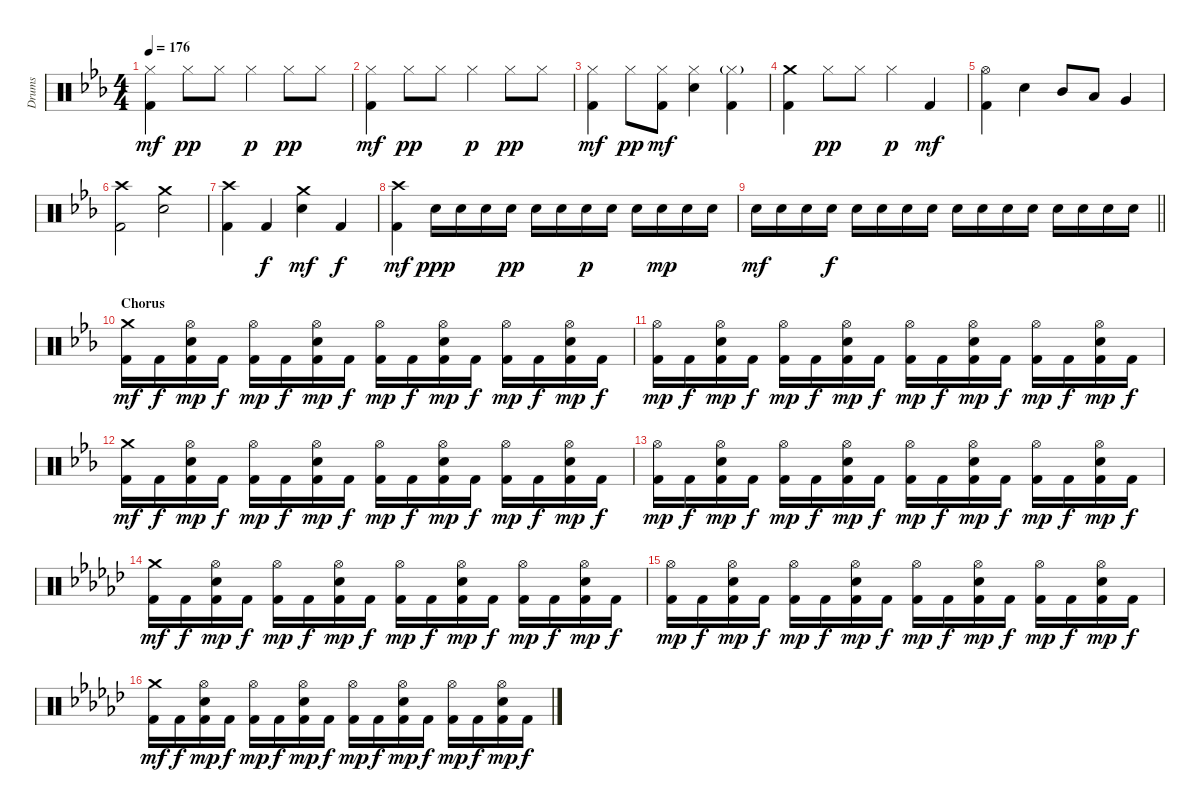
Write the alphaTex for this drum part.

\track ("Drums" "Drums") {instrument percussion}
\staff {score}
\articulation defaults
\ts (4 4)
\tempo 176
\clef neutral
\ks cminor
("Hi-Hat (closed)" "Kick (hit) 2").4{dy mf} "Hi-Hat (closed)".8{dy pp} "Hi-Hat (closed)".8 "Hi-Hat (closed)".4{dy p} "Hi-Hat (closed)".8{dy pp} "Hi-Hat (closed)".8 |
("Hi-Hat (closed)" "Kick (hit) 2").4{dy mf} "Hi-Hat (closed)".8{dy pp} "Hi-Hat (closed)".8 "Hi-Hat (closed)".4{dy p} "Hi-Hat (closed)".8{dy pp} "Hi-Hat (closed)".8 |
("Hi-Hat (closed)" "Kick (hit) 2").4{dy mf} "Hi-Hat (closed)".8{dy pp} ("Hi-Hat (closed)" "Kick (hit) 2").8{dy mf} ("Hi-Hat (closed)" "Electric Snare (hit)").4 ("Hi-Hat (closed)"{g} "Kick (hit) 2").4 |
("Crash medium (hit)" "Kick (hit) 2").4 "Hi-Hat (closed)".8{dy pp} "Hi-Hat (closed)".8 "Hi-Hat (closed)".4{dy p} "Kick (hit) 2".4{dy mf} |
("Hi-Hat (open)" "Kick (hit) 2").4 "Electric Snare (hit)".4 "Mid Tom (hit)".8 "Low Tom (hit)".8 "Very Low Tom (hit)".4 |
("Crash high (hit)" "Kick (hit) 2").2 ("Crash medium (hit)" "Electric Snare (hit)").2 |
("Crash high (hit)" "Kick (hit) 2").4 "Kick (hit) 2".4{dy f} ("Crash medium (hit)" "Electric Snare (hit)").4{dy mf} "Kick (hit) 2".4{dy f} |
("Crash high (hit)" "Kick (hit) 2").4{dy mf} "Electric Snare (hit)".16{dy ppp} "Electric Snare (hit)".16 "Electric Snare (hit)".16 "Electric Snare (hit)".16{dy pp} "Electric Snare (hit)".16 "Electric Snare (hit)".16 "Electric Snare (hit)".16{dy p} "Electric Snare (hit)".16 "Electric Snare (hit)".16 "Electric Snare (hit)".16{dy mp} "Electric Snare (hit)".16 "Electric Snare (hit)".16 |
\barLineRight lightlight "Electric Snare (hit)".16{dy mf} "Electric Snare (hit)".16 "Electric Snare (hit)".16 "Electric Snare (hit)".16{dy f} "Electric Snare (hit)".16 "Electric Snare (hit)".16 "Electric Snare (hit)".16 "Electric Snare (hit)".16 "Electric Snare (hit)".16 "Electric Snare (hit)".16 "Electric Snare (hit)".16 "Electric Snare (hit)".16 "Electric Snare (hit)".16 "Electric Snare (hit)".16 "Electric Snare (hit)".16 "Electric Snare (hit)".16
|
\section ("" "Chorus")
("Crash medium (hit)" "Kick (hit) 2").16{dy mf} "Kick (hit) 2".16{dy f} ("Hi-Hat (open)" "Electric Snare (hit)" "Kick (hit) 2").16{dy mp} "Kick (hit) 2".16{dy f} ("Hi-Hat (open)" "Kick (hit) 2").16{dy mp} "Kick (hit) 2".16{dy f} ("Hi-Hat (open)" "Electric Snare (hit)" "Kick (hit) 2").16{dy mp} "Kick (hit) 2".16{dy f} ("Hi-Hat (open)" "Kick (hit) 2").16{dy mp} "Kick (hit) 2".16{dy f} ("Hi-Hat (open)" "Electric Snare (hit)" "Kick (hit) 2").16{dy mp} "Kick (hit) 2".16{dy f} ("Hi-Hat (open)" "Kick (hit) 2").16{dy mp} "Kick (hit) 2".16{dy f} ("Hi-Hat (open)" "Electric Snare (hit)" "Kick (hit) 2").16{dy mp} "Kick (hit) 2".16{dy f} |
("Hi-Hat (open)" "Kick (hit) 2").16{dy mp} "Kick (hit) 2".16{dy f} ("Hi-Hat (open)" "Electric Snare (hit)" "Kick (hit) 2").16{dy mp} "Kick (hit) 2".16{dy f} ("Hi-Hat (open)" "Kick (hit) 2").16{dy mp} "Kick (hit) 2".16{dy f} ("Hi-Hat (open)" "Electric Snare (hit)" "Kick (hit) 2").16{dy mp} "Kick (hit) 2".16{dy f} ("Hi-Hat (open)" "Kick (hit) 2").16{dy mp} "Kick (hit) 2".16{dy f} ("Hi-Hat (open)" "Electric Snare (hit)" "Kick (hit) 2").16{dy mp} "Kick (hit) 2".16{dy f} ("Hi-Hat (open)" "Kick (hit) 2").16{dy mp} "Kick (hit) 2".16{dy f} ("Hi-Hat (open)" "Electric Snare (hit)" "Kick (hit) 2").16{dy mp} "Kick (hit) 2".16{dy f} |
("Crash medium (hit)" "Kick (hit) 2").16{dy mf} "Kick (hit) 2".16{dy f} ("Hi-Hat (open)" "Electric Snare (hit)" "Kick (hit) 2").16{dy mp} "Kick (hit) 2".16{dy f} ("Hi-Hat (open)" "Kick (hit) 2").16{dy mp} "Kick (hit) 2".16{dy f} ("Hi-Hat (open)" "Electric Snare (hit)" "Kick (hit) 2").16{dy mp} "Kick (hit) 2".16{dy f} ("Hi-Hat (open)" "Kick (hit) 2").16{dy mp} "Kick (hit) 2".16{dy f} ("Hi-Hat (open)" "Electric Snare (hit)" "Kick (hit) 2").16{dy mp} "Kick (hit) 2".16{dy f} ("Hi-Hat (open)" "Kick (hit) 2").16{dy mp} "Kick (hit) 2".16{dy f} ("Hi-Hat (open)" "Electric Snare (hit)" "Kick (hit) 2").16{dy mp} "Kick (hit) 2".16{dy f} |
("Hi-Hat (open)" "Kick (hit) 2").16{dy mp} "Kick (hit) 2".16{dy f} ("Hi-Hat (open)" "Electric Snare (hit)" "Kick (hit) 2").16{dy mp} "Kick (hit) 2".16{dy f} ("Hi-Hat (open)" "Kick (hit) 2").16{dy mp} "Kick (hit) 2".16{dy f} ("Hi-Hat (open)" "Electric Snare (hit)" "Kick (hit) 2").16{dy mp} "Kick (hit) 2".16{dy f} ("Hi-Hat (open)" "Kick (hit) 2").16{dy mp} "Kick (hit) 2".16{dy f} ("Hi-Hat (open)" "Electric Snare (hit)" "Kick (hit) 2").16{dy mp} "Kick (hit) 2".16{dy f} ("Hi-Hat (open)" "Kick (hit) 2").16{dy mp} "Kick (hit) 2".16{dy f} ("Hi-Hat (open)" "Electric Snare (hit)" "Kick (hit) 2").16{dy mp} "Kick (hit) 2".16{dy f} |
\ks ebminor
("Crash medium (hit)" "Kick (hit) 2").16{dy mf} "Kick (hit) 2".16{dy f} ("Hi-Hat (open)" "Electric Snare (hit)" "Kick (hit) 2").16{dy mp} "Kick (hit) 2".16{dy f} ("Hi-Hat (open)" "Kick (hit) 2").16{dy mp} "Kick (hit) 2".16{dy f} ("Hi-Hat (open)" "Electric Snare (hit)" "Kick (hit) 2").16{dy mp} "Kick (hit) 2".16{dy f} ("Hi-Hat (open)" "Kick (hit) 2").16{dy mp} "Kick (hit) 2".16{dy f} ("Hi-Hat (open)" "Electric Snare (hit)" "Kick (hit) 2").16{dy mp} "Kick (hit) 2".16{dy f} ("Hi-Hat (open)" "Kick (hit) 2").16{dy mp} "Kick (hit) 2".16{dy f} ("Hi-Hat (open)" "Electric Snare (hit)" "Kick (hit) 2").16{dy mp} "Kick (hit) 2".16{dy f} |
("Hi-Hat (open)" "Kick (hit) 2").16{dy mp} "Kick (hit) 2".16{dy f} ("Hi-Hat (open)" "Electric Snare (hit)" "Kick (hit) 2").16{dy mp} "Kick (hit) 2".16{dy f} ("Hi-Hat (open)" "Kick (hit) 2").16{dy mp} "Kick (hit) 2".16{dy f} ("Hi-Hat (open)" "Electric Snare (hit)" "Kick (hit) 2").16{dy mp} "Kick (hit) 2".16{dy f} ("Hi-Hat (open)" "Kick (hit) 2").16{dy mp} "Kick (hit) 2".16{dy f} ("Hi-Hat (open)" "Electric Snare (hit)" "Kick (hit) 2").16{dy mp} "Kick (hit) 2".16{dy f} ("Hi-Hat (open)" "Kick (hit) 2").16{dy mp} "Kick (hit) 2".16{dy f} ("Hi-Hat (open)" "Electric Snare (hit)" "Kick (hit) 2").16{dy mp} "Kick (hit) 2".16{dy f} |
("Crash medium (hit)" "Kick (hit) 2").16{dy mf} "Kick (hit) 2".16{dy f} ("Hi-Hat (open)" "Electric Snare (hit)" "Kick (hit) 2").16{dy mp} "Kick (hit) 2".16{dy f} ("Hi-Hat (open)" "Kick (hit) 2").16{dy mp} "Kick (hit) 2".16{dy f} ("Hi-Hat (open)" "Electric Snare (hit)" "Kick (hit) 2").16{dy mp} "Kick (hit) 2".16{dy f} ("Hi-Hat (open)" "Kick (hit) 2").16{dy mp} "Kick (hit) 2".16{dy f} ("Hi-Hat (open)" "Electric Snare (hit)" "Kick (hit) 2").16{dy mp} "Kick (hit) 2".16{dy f} ("Hi-Hat (open)" "Kick (hit) 2").16{dy mp} "Kick (hit) 2".16{dy f} ("Hi-Hat (open)" "Electric Snare (hit)" "Kick (hit) 2").16{dy mp} "Kick (hit) 2".16{dy f}
